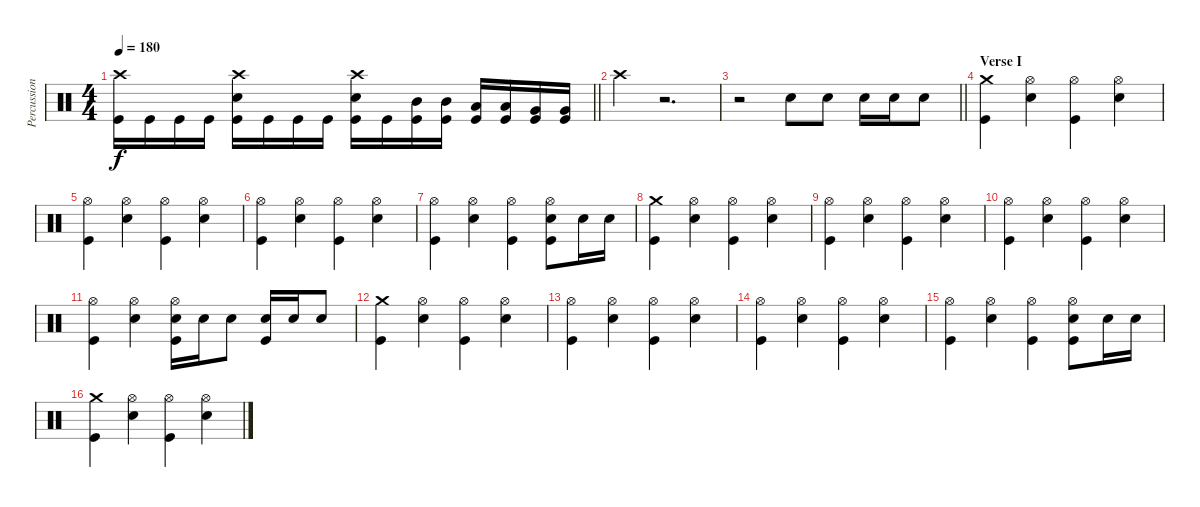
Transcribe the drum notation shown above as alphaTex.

\track ("Percussion" "Percussion") {instrument percussion}
\staff {score}
\articulation defaults
\ts (4 4)
\tempo 180
\clef neutral
\barLineRight lightlight
\ks c
("Crash high (hit)" "Kick (hit)").16{dy f} "Kick (hit)".16 "Kick (hit)".16 "Kick (hit)".16 ("Crash high (hit)" "Electric Snare (hit)" "Kick (hit)").16 "Kick (hit)".16 "Kick (hit)".16 "Kick (hit)".16 ("Crash high (hit)" "Electric Snare (hit)" "Kick (hit)").16 "Kick (hit)".16 ("Mid Tom (hit)" "Kick (hit)").16 ("Mid Tom (hit)" "Kick (hit)").16 ("Low Tom (hit)" "Kick (hit)").16 ("Low Tom (hit)" "Kick (hit)").16 ("Very Low Tom (hit)" "Kick (hit)").16 ("Very Low Tom (hit)" "Kick (hit)").16 |
"Crash high (hit)".4 r.2{d volume 0} |
\barLineRight lightlight
r.2 "Electric Snare (hit)".8{volume 13} "Electric Snare (hit)".8 "Electric Snare (hit)".16 "Electric Snare (hit)".16 "Electric Snare (hit)".8 |
\section ("" "Verse I")
("Crash medium (hit)" "Kick (hit)").4 ("Hi-Hat (open)" "Electric Snare (hit)").4 ("Hi-Hat (open)" "Kick (hit)").4 ("Hi-Hat (open)" "Electric Snare (hit)").4 |
("Hi-Hat (open)" "Kick (hit)").4 ("Hi-Hat (open)" "Electric Snare (hit)").4 ("Hi-Hat (open)" "Kick (hit)").4 ("Hi-Hat (open)" "Electric Snare (hit)").4 |
("Hi-Hat (open)" "Kick (hit)").4 ("Hi-Hat (open)" "Electric Snare (hit)").4 ("Hi-Hat (open)" "Kick (hit)").4 ("Hi-Hat (open)" "Electric Snare (hit)").4 |
("Hi-Hat (open)" "Kick (hit)").4 ("Hi-Hat (open)" "Electric Snare (hit)").4 ("Hi-Hat (open)" "Kick (hit)").4 ("Hi-Hat (open)" "Electric Snare (hit)" "Kick (hit)").8 "Electric Snare (hit)".16 "Electric Snare (hit)".16 |
("Crash medium (hit)" "Kick (hit)").4 ("Hi-Hat (open)" "Electric Snare (hit)").4 ("Hi-Hat (open)" "Kick (hit)").4 ("Hi-Hat (open)" "Electric Snare (hit)").4 |
("Hi-Hat (open)" "Kick (hit)").4 ("Hi-Hat (open)" "Electric Snare (hit)").4 ("Hi-Hat (open)" "Kick (hit)").4 ("Hi-Hat (open)" "Electric Snare (hit)").4 |
("Hi-Hat (open)" "Kick (hit)").4 ("Hi-Hat (open)" "Electric Snare (hit)").4 ("Hi-Hat (open)" "Kick (hit)").4 ("Hi-Hat (open)" "Electric Snare (hit)").4 |
("Hi-Hat (open)" "Kick (hit)").4 ("Hi-Hat (open)" "Electric Snare (hit)").4 ("Hi-Hat (open)" "Electric Snare (hit)" "Kick (hit)").16 "Electric Snare (hit)".16 "Electric Snare (hit)".8 ("Electric Snare (hit)" "Kick (hit)").16 "Electric Snare (hit)".16 "Electric Snare (hit)".8 |
("Crash medium (hit)" "Kick (hit)").4 ("Hi-Hat (open)" "Electric Snare (hit)").4 ("Hi-Hat (open)" "Kick (hit)").4 ("Hi-Hat (open)" "Electric Snare (hit)").4 |
("Hi-Hat (open)" "Kick (hit)").4 ("Hi-Hat (open)" "Electric Snare (hit)").4 ("Hi-Hat (open)" "Kick (hit)").4 ("Hi-Hat (open)" "Electric Snare (hit)").4 |
("Hi-Hat (open)" "Kick (hit)").4 ("Hi-Hat (open)" "Electric Snare (hit)").4 ("Hi-Hat (open)" "Kick (hit)").4 ("Hi-Hat (open)" "Electric Snare (hit)").4 |
("Hi-Hat (open)" "Kick (hit)").4 ("Hi-Hat (open)" "Electric Snare (hit)").4 ("Hi-Hat (open)" "Kick (hit)").4 ("Hi-Hat (open)" "Electric Snare (hit)" "Kick (hit)").8 "Electric Snare (hit)".16 "Electric Snare (hit)".16 |
("Crash medium (hit)" "Kick (hit)").4 ("Hi-Hat (open)" "Electric Snare (hit)").4 ("Hi-Hat (open)" "Kick (hit)").4 ("Hi-Hat (open)" "Electric Snare (hit)").4
